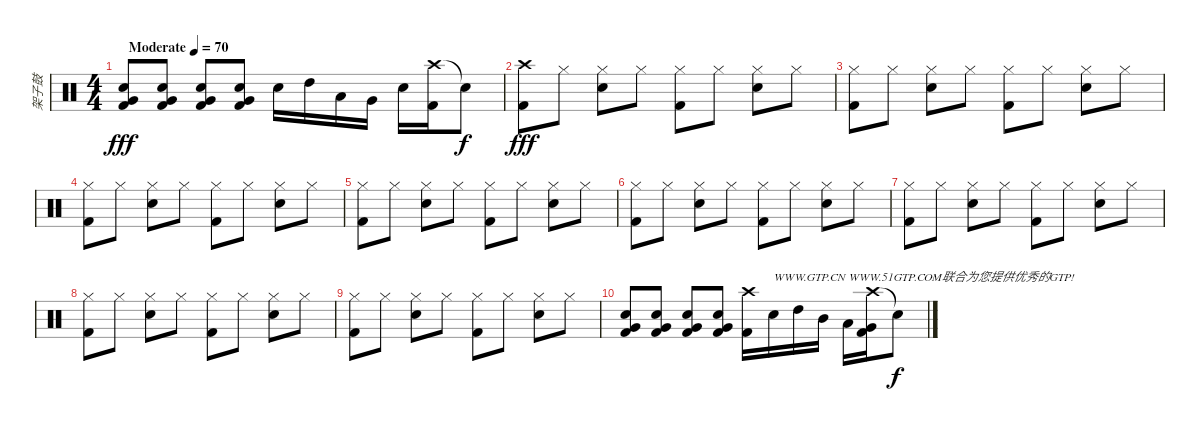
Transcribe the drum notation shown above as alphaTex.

\track ("架子鼓" "架子鼓") {instrument percussion}
\staff {score}
\articulation defaults
\ts (4 4)
\tempo (70 "Moderate")
\clef neutral
\ks c
("Electric Snare (hit)" "Very Low Tom (hit)" "Kick (hit) 2").8{dy fff} ("Electric Snare (hit)" "Very Low Tom (hit)" "Kick (hit) 2").8 ("Electric Snare (hit)" "Very Low Tom (hit)" "Kick (hit) 2").8 ("Electric Snare (hit)" "Very Low Tom (hit)" "Kick (hit) 2").8 "Electric Snare (hit)".16 "High Tom (hit)".16 "Low Tom (hit)".16 "Very Low Tom (hit)".16 "Electric Snare (hit)".16 ("Crash high (hit)" "Kick (hit) 2").16 "Snare (hit)"{t}.8{dy f} |
("Crash high (hit)" "Kick (hit) 2").8{dy fff} "Hi-Hat (closed)".8 ("Hi-Hat (closed)" "Electric Snare (hit)").8 "Hi-Hat (closed)".8 ("Hi-Hat (closed)" "Kick (hit) 2").8 "Hi-Hat (closed)".8 ("Hi-Hat (closed)" "Electric Snare (hit)").8 "Hi-Hat (closed)".8 |
("Hi-Hat (closed)" "Kick (hit) 2").8 "Hi-Hat (closed)".8 ("Hi-Hat (closed)" "Electric Snare (hit)").8 "Hi-Hat (closed)".8 ("Hi-Hat (closed)" "Kick (hit) 2").8 "Hi-Hat (closed)".8 ("Hi-Hat (closed)" "Electric Snare (hit)").8 "Hi-Hat (closed)".8 |
("Hi-Hat (closed)" "Kick (hit) 2").8 "Hi-Hat (closed)".8 ("Hi-Hat (closed)" "Electric Snare (hit)").8 "Hi-Hat (closed)".8 ("Hi-Hat (closed)" "Kick (hit) 2").8 "Hi-Hat (closed)".8 ("Hi-Hat (closed)" "Electric Snare (hit)").8 "Hi-Hat (closed)".8 |
("Hi-Hat (closed)" "Kick (hit) 2").8 "Hi-Hat (closed)".8 ("Hi-Hat (closed)" "Electric Snare (hit)").8 "Hi-Hat (closed)".8 ("Hi-Hat (closed)" "Kick (hit) 2").8 "Hi-Hat (closed)".8 ("Hi-Hat (closed)" "Electric Snare (hit)").8 "Hi-Hat (closed)".8 |
("Hi-Hat (closed)" "Kick (hit) 2").8 "Hi-Hat (closed)".8 ("Hi-Hat (closed)" "Electric Snare (hit)").8 "Hi-Hat (closed)".8 ("Hi-Hat (closed)" "Kick (hit) 2").8 "Hi-Hat (closed)".8 ("Hi-Hat (closed)" "Electric Snare (hit)").8 "Hi-Hat (closed)".8 |
("Hi-Hat (closed)" "Kick (hit) 2").8 "Hi-Hat (closed)".8 ("Hi-Hat (closed)" "Electric Snare (hit)").8 "Hi-Hat (closed)".8 ("Hi-Hat (closed)" "Kick (hit) 2").8 "Hi-Hat (closed)".8 ("Hi-Hat (closed)" "Electric Snare (hit)").8 "Hi-Hat (closed)".8 |
("Hi-Hat (closed)" "Kick (hit) 2").8 "Hi-Hat (closed)".8 ("Hi-Hat (closed)" "Electric Snare (hit)").8 "Hi-Hat (closed)".8 ("Hi-Hat (closed)" "Kick (hit) 2").8 "Hi-Hat (closed)".8 ("Hi-Hat (closed)" "Electric Snare (hit)").8 "Hi-Hat (closed)".8 |
("Hi-Hat (closed)" "Kick (hit) 2").8 "Hi-Hat (closed)".8 ("Hi-Hat (closed)" "Electric Snare (hit)").8 "Hi-Hat (closed)".8 ("Hi-Hat (closed)" "Kick (hit) 2").8 "Hi-Hat (closed)".8 ("Hi-Hat (closed)" "Electric Snare (hit)").8 "Hi-Hat (closed)".8 |
("Electric Snare (hit)" "Very Low Tom (hit)" "Kick (hit) 2").8 ("Electric Snare (hit)" "Very Low Tom (hit)" "Kick (hit) 2").8 ("Electric Snare (hit)" "Very Low Tom (hit)" "Kick (hit) 2").8 ("Electric Snare (hit)" "Very Low Tom (hit)" "Kick (hit) 2").8 ("Crash high (hit)" "Kick (hit) 2").16 "Electric Snare (hit)".16{txt "WWW.GTP.CN WWW.51GTP.COM联合为您提供优秀的GTP!"} "High Tom (hit)".16 "Mid Tom (hit)".16 "Low Tom (hit)".16 ("Crash high (hit)" "Very Low Tom (hit)" "Kick (hit) 2").16 "Snare (hit)"{t}.8{dy f}
